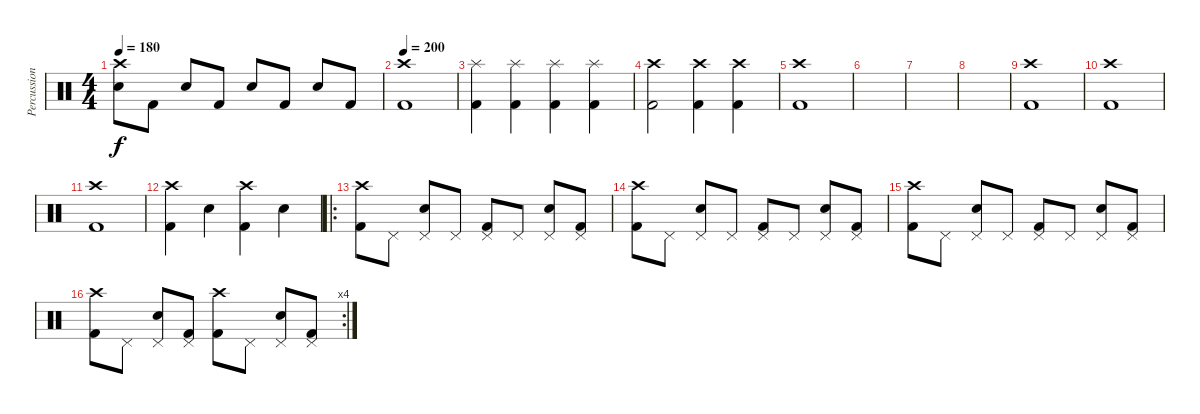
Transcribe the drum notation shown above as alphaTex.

\track ("Percussion" "Percussion") {instrument percussion}
\staff {score}
\articulation defaults
\ts (4 4)
\tempo 180
\clef neutral
\ks c
("Electric Snare (hit)" "Crash high (hit)").8{dy f} "Kick (hit) 2".8 "Electric Snare (hit)".8 "Kick (hit) 2".8 "Electric Snare (hit)".8 "Kick (hit) 2".8 "Electric Snare (hit)".8 "Kick (hit) 2".8 |
\tempo 200
("Kick (hit) 2" "Crash high (hit)").1 |
("Kick (hit) 2" "Splash (hit)").4 ("Kick (hit) 2" "Splash (hit)").4 ("Kick (hit) 2" "Splash (hit)").4 ("Kick (hit) 2" "Splash (hit)").4 |
("Kick (hit) 2" "Crash high (hit)").2 ("Kick (hit) 2" "Crash high (hit)").4 ("Kick (hit) 2" "Crash high (hit)").4 |
("Kick (hit) 2" "Crash high (hit)").1 |
|
|
|
("Kick (hit) 2" "Crash high (hit)").1 |
("Kick (hit) 2" "Crash high (hit)").1 |
("Kick (hit) 2" "Crash high (hit)").1 |
("Kick (hit) 2" "Crash high (hit)").4 "Electric Snare (hit)".4 ("Kick (hit) 2" "Crash high (hit)").4 "Electric Snare (hit)".4 |
\ro
("Kick (hit) 2" "Crash high (hit)").8 "Pedal Hi-Hat (hit)".8 ("Electric Snare (hit)" "Pedal Hi-Hat (hit)").8 "Pedal Hi-Hat (hit)".8 ("Kick (hit) 2" "Pedal Hi-Hat (hit)").8 "Pedal Hi-Hat (hit)".8 ("Electric Snare (hit)" "Pedal Hi-Hat (hit)").8 ("Kick (hit) 2" "Pedal Hi-Hat (hit)").8 |
("Kick (hit) 2" "Crash high (hit)").8 "Pedal Hi-Hat (hit)".8 ("Electric Snare (hit)" "Pedal Hi-Hat (hit)").8 "Pedal Hi-Hat (hit)".8 ("Kick (hit) 2" "Pedal Hi-Hat (hit)").8 "Pedal Hi-Hat (hit)".8 ("Electric Snare (hit)" "Pedal Hi-Hat (hit)").8 ("Kick (hit) 2" "Pedal Hi-Hat (hit)").8 |
("Kick (hit) 2" "Crash high (hit)").8 "Pedal Hi-Hat (hit)".8 ("Electric Snare (hit)" "Pedal Hi-Hat (hit)").8 "Pedal Hi-Hat (hit)".8 ("Kick (hit) 2" "Pedal Hi-Hat (hit)").8 "Pedal Hi-Hat (hit)".8 ("Electric Snare (hit)" "Pedal Hi-Hat (hit)").8 ("Kick (hit) 2" "Pedal Hi-Hat (hit)").8 |
\rc 4
("Kick (hit) 2" "Crash high (hit)").8 "Pedal Hi-Hat (hit)".8 ("Electric Snare (hit)" "Pedal Hi-Hat (hit)").8 ("Kick (hit) 2" "Pedal Hi-Hat (hit)").8 ("Kick (hit) 2" "Crash high (hit)").8 "Pedal Hi-Hat (hit)".8 ("Electric Snare (hit)" "Pedal Hi-Hat (hit)").8 ("Kick (hit) 2" "Pedal Hi-Hat (hit)").8
